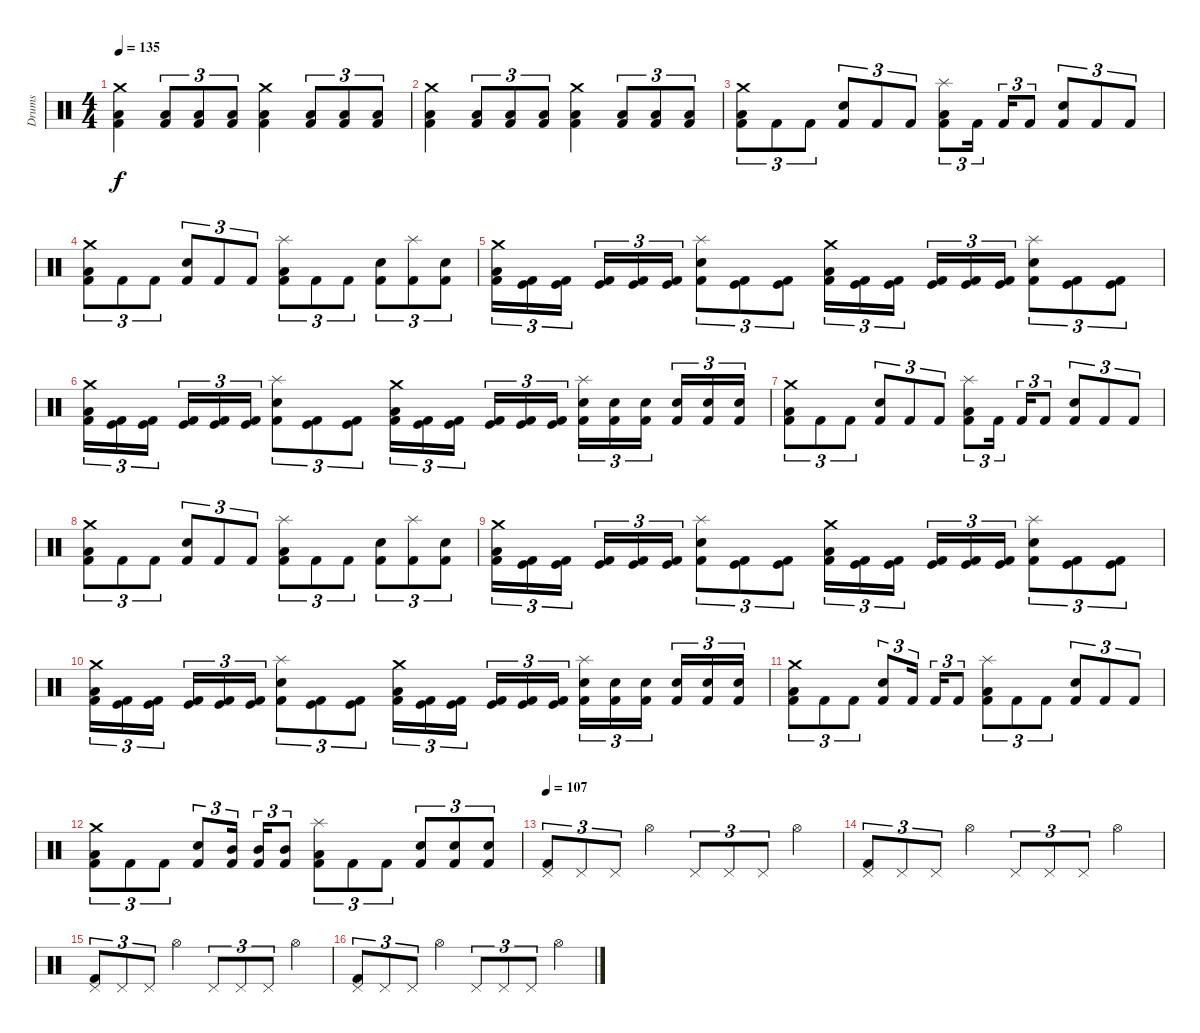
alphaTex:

\track ("Drums" "Drums") {instrument percussion}
\staff {score}
\articulation defaults
\ts (4 4)
\tempo 135
\clef neutral
\ks c
("Crash medium (hit)" "Low Floor Tom (hit)" "Kick (hit) 2").4{dy f} ("Low Floor Tom (hit)" "Kick (hit) 2").8{tu (3 2)} ("Low Floor Tom (hit)" "Kick (hit) 2").8{tu (3 2)} ("Low Floor Tom (hit)" "Kick (hit) 2").8{tu (3 2)} ("Crash medium (hit)" "Low Floor Tom (hit)" "Kick (hit) 2").4 ("Low Floor Tom (hit)" "Kick (hit) 2").8{tu (3 2)} ("Low Floor Tom (hit)" "Kick (hit) 2").8{tu (3 2)} ("Low Floor Tom (hit)" "Kick (hit) 2").8{tu (3 2)} |
("Crash medium (hit)" "Low Floor Tom (hit)" "Kick (hit) 2").4 ("Low Floor Tom (hit)" "Kick (hit) 2").8{tu (3 2)} ("Low Floor Tom (hit)" "Kick (hit) 2").8{tu (3 2)} ("Low Floor Tom (hit)" "Kick (hit) 2").8{tu (3 2)} ("Crash medium (hit)" "Low Floor Tom (hit)" "Kick (hit) 2").4 ("Low Floor Tom (hit)" "Kick (hit) 2").8{tu (3 2)} ("Low Floor Tom (hit)" "Kick (hit) 2").8{tu (3 2)} ("Low Floor Tom (hit)" "Kick (hit) 2").8{tu (3 2)} |
("Crash medium (hit)" "Low Floor Tom (hit)" "Kick (hit) 2").8{tu (3 2)} "Kick (hit) 2".8{tu (3 2)} "Kick (hit) 2".8{tu (3 2)} ("Snare (hit) 2" "Kick (hit) 2").8{tu (3 2)} "Kick (hit) 2".8{tu (3 2)} "Kick (hit) 2".8{tu (3 2)} ("Splash (hit)" "Low Floor Tom (hit)" "Kick (hit) 2").8{tu (3 2)} "Kick (hit) 2".16{tu (3 2)} "Kick (hit) 2".16{tu (3 2)} "Kick (hit) 2".8{tu (3 2)} ("Snare (hit) 2" "Kick (hit) 2").8{tu (3 2)} "Kick (hit) 2".8{tu (3 2)} "Kick (hit) 2".8{tu (3 2)} |
("Crash medium (hit)" "Low Floor Tom (hit)" "Kick (hit) 2").8{tu (3 2)} "Kick (hit) 2".8{tu (3 2)} "Kick (hit) 2".8{tu (3 2)} ("Snare (hit) 2" "Kick (hit) 2").8{tu (3 2)} "Kick (hit) 2".8{tu (3 2)} "Kick (hit) 2".8{tu (3 2)} ("Splash (hit)" "Low Floor Tom (hit)" "Kick (hit) 2").8{tu (3 2)} "Kick (hit) 2".8{tu (3 2)} "Kick (hit) 2".8{tu (3 2)} ("Snare (hit) 2" "Kick (hit) 2").8{tu (3 2)} ("Splash (hit)" "Kick (hit) 2").8{tu (3 2)} ("Snare (hit) 2" "Kick (hit) 2").8{tu (3 2)} |
("Crash medium (hit)" "Low Floor Tom (hit)" "Kick (hit) 2").16{tu (3 2)} ("Kick (hit)" "Kick (hit) 2").16{tu (3 2)} ("Kick (hit)" "Kick (hit) 2").16{tu (3 2)} ("Kick (hit)" "Kick (hit) 2").16{tu (3 2)} ("Kick (hit)" "Kick (hit) 2").16{tu (3 2)} ("Kick (hit)" "Kick (hit) 2").16{tu (3 2)} ("Splash (hit)" "Snare (hit) 2" "Kick (hit) 2").8{tu (3 2)} ("Kick (hit)" "Kick (hit) 2").8{tu (3 2)} ("Kick (hit)" "Kick (hit) 2").8{tu (3 2)} ("Crash medium (hit)" "Low Floor Tom (hit)" "Kick (hit) 2").16{tu (3 2)} ("Kick (hit)" "Kick (hit) 2").16{tu (3 2)} ("Kick (hit)" "Kick (hit) 2").16{tu (3 2)} ("Kick (hit)" "Kick (hit) 2").16{tu (3 2)} ("Kick (hit)" "Kick (hit) 2").16{tu (3 2)} ("Kick (hit)" "Kick (hit) 2").16{tu (3 2)} ("Splash (hit)" "Snare (hit) 2" "Kick (hit) 2").8{tu (3 2)} ("Kick (hit)" "Kick (hit) 2").8{tu (3 2)} ("Kick (hit)" "Kick (hit) 2").8{tu (3 2)} |
("Crash medium (hit)" "Low Floor Tom (hit)" "Kick (hit) 2").16{tu (3 2)} ("Kick (hit)" "Kick (hit) 2").16{tu (3 2)} ("Kick (hit)" "Kick (hit) 2").16{tu (3 2)} ("Kick (hit)" "Kick (hit) 2").16{tu (3 2)} ("Kick (hit)" "Kick (hit) 2").16{tu (3 2)} ("Kick (hit)" "Kick (hit) 2").16{tu (3 2)} ("Splash (hit)" "Snare (hit) 2" "Kick (hit) 2").8{tu (3 2)} ("Kick (hit)" "Kick (hit) 2").8{tu (3 2)} ("Kick (hit)" "Kick (hit) 2").8{tu (3 2)} ("Crash medium (hit)" "Low Floor Tom (hit)" "Kick (hit) 2").16{tu (3 2)} ("Kick (hit)" "Kick (hit) 2").16{tu (3 2)} ("Kick (hit)" "Kick (hit) 2").16{tu (3 2)} ("Kick (hit)" "Kick (hit) 2").16{tu (3 2)} ("Kick (hit)" "Kick (hit) 2").16{tu (3 2)} ("Kick (hit)" "Kick (hit) 2").16{tu (3 2)} ("Splash (hit)" "Snare (hit) 2" "Kick (hit) 2").16{tu (3 2)} ("Snare (hit) 2" "Kick (hit) 2").16{tu (3 2)} ("Snare (hit) 2" "Kick (hit) 2").16{tu (3 2)} ("Electric Snare (hit)" "Kick (hit) 2").16{tu (3 2)} ("Electric Snare (hit)" "Kick (hit) 2").16{tu (3 2)} ("Electric Snare (hit)" "Kick (hit) 2").16{tu (3 2)} |
("Crash medium (hit)" "Low Floor Tom (hit)" "Kick (hit) 2").8{tu (3 2)} "Kick (hit) 2".8{tu (3 2)} "Kick (hit) 2".8{tu (3 2)} ("Snare (hit) 2" "Kick (hit) 2").8{tu (3 2)} "Kick (hit) 2".8{tu (3 2)} "Kick (hit) 2".8{tu (3 2)} ("Splash (hit)" "Low Floor Tom (hit)" "Kick (hit) 2").8{tu (3 2)} "Kick (hit) 2".16{tu (3 2)} "Kick (hit) 2".16{tu (3 2)} "Kick (hit) 2".8{tu (3 2)} ("Snare (hit) 2" "Kick (hit) 2").8{tu (3 2)} "Kick (hit) 2".8{tu (3 2)} "Kick (hit) 2".8{tu (3 2)} |
("Crash medium (hit)" "Low Floor Tom (hit)" "Kick (hit) 2").8{tu (3 2)} "Kick (hit) 2".8{tu (3 2)} "Kick (hit) 2".8{tu (3 2)} ("Snare (hit) 2" "Kick (hit) 2").8{tu (3 2)} "Kick (hit) 2".8{tu (3 2)} "Kick (hit) 2".8{tu (3 2)} ("Splash (hit)" "Low Floor Tom (hit)" "Kick (hit) 2").8{tu (3 2)} "Kick (hit) 2".8{tu (3 2)} "Kick (hit) 2".8{tu (3 2)} ("Snare (hit) 2" "Kick (hit) 2").8{tu (3 2)} ("Splash (hit)" "Kick (hit) 2").8{tu (3 2)} ("Snare (hit) 2" "Kick (hit) 2").8{tu (3 2)} |
("Crash medium (hit)" "Low Floor Tom (hit)" "Kick (hit) 2").16{tu (3 2)} ("Kick (hit)" "Kick (hit) 2").16{tu (3 2)} ("Kick (hit)" "Kick (hit) 2").16{tu (3 2)} ("Kick (hit)" "Kick (hit) 2").16{tu (3 2)} ("Kick (hit)" "Kick (hit) 2").16{tu (3 2)} ("Kick (hit)" "Kick (hit) 2").16{tu (3 2)} ("Splash (hit)" "Snare (hit) 2" "Kick (hit) 2").8{tu (3 2)} ("Kick (hit)" "Kick (hit) 2").8{tu (3 2)} ("Kick (hit)" "Kick (hit) 2").8{tu (3 2)} ("Crash medium (hit)" "Low Floor Tom (hit)" "Kick (hit) 2").16{tu (3 2)} ("Kick (hit)" "Kick (hit) 2").16{tu (3 2)} ("Kick (hit)" "Kick (hit) 2").16{tu (3 2)} ("Kick (hit)" "Kick (hit) 2").16{tu (3 2)} ("Kick (hit)" "Kick (hit) 2").16{tu (3 2)} ("Kick (hit)" "Kick (hit) 2").16{tu (3 2)} ("Splash (hit)" "Snare (hit) 2" "Kick (hit) 2").8{tu (3 2)} ("Kick (hit)" "Kick (hit) 2").8{tu (3 2)} ("Kick (hit)" "Kick (hit) 2").8{tu (3 2)} |
("Crash medium (hit)" "Low Floor Tom (hit)" "Kick (hit) 2").16{tu (3 2)} ("Kick (hit)" "Kick (hit) 2").16{tu (3 2)} ("Kick (hit)" "Kick (hit) 2").16{tu (3 2)} ("Kick (hit)" "Kick (hit) 2").16{tu (3 2)} ("Kick (hit)" "Kick (hit) 2").16{tu (3 2)} ("Kick (hit)" "Kick (hit) 2").16{tu (3 2)} ("Splash (hit)" "Snare (hit) 2" "Kick (hit) 2").8{tu (3 2)} ("Kick (hit)" "Kick (hit) 2").8{tu (3 2)} ("Kick (hit)" "Kick (hit) 2").8{tu (3 2)} ("Crash medium (hit)" "Low Floor Tom (hit)" "Kick (hit) 2").16{tu (3 2)} ("Kick (hit)" "Kick (hit) 2").16{tu (3 2)} ("Kick (hit)" "Kick (hit) 2").16{tu (3 2)} ("Kick (hit)" "Kick (hit) 2").16{tu (3 2)} ("Kick (hit)" "Kick (hit) 2").16{tu (3 2)} ("Kick (hit)" "Kick (hit) 2").16{tu (3 2)} ("Splash (hit)" "Snare (hit) 2" "Kick (hit) 2").16{tu (3 2)} ("Snare (hit) 2" "Kick (hit) 2").16{tu (3 2)} ("Snare (hit) 2" "Kick (hit) 2").16{tu (3 2)} ("Electric Snare (hit)" "Kick (hit) 2").16{tu (3 2)} ("Electric Snare (hit)" "Kick (hit) 2").16{tu (3 2)} ("Electric Snare (hit)" "Kick (hit) 2").16{tu (3 2)} |
("Crash medium (hit)" "Low Floor Tom (hit)" "Kick (hit) 2").8{tu (3 2)} "Kick (hit) 2".8{tu (3 2)} "Kick (hit) 2".8{tu (3 2)} ("Snare (hit) 2" "Kick (hit) 2").8{tu (3 2)} "Kick (hit) 2".16{tu (3 2)} "Kick (hit) 2".16{tu (3 2)} "Kick (hit) 2".8{tu (3 2)} ("Splash (hit)" "Low Floor Tom (hit)" "Kick (hit) 2").8{tu (3 2)} "Kick (hit) 2".8{tu (3 2)} "Kick (hit) 2".8{tu (3 2)} ("Snare (hit) 2" "Kick (hit) 2").8{tu (3 2)} "Kick (hit) 2".8{tu (3 2)} "Kick (hit) 2".8{tu (3 2)} |
("Crash medium (hit)" "Low Floor Tom (hit)" "Kick (hit) 2").8{tu (3 2)} "Kick (hit) 2".8{tu (3 2)} "Kick (hit) 2".8{tu (3 2)} ("Snare (hit) 2" "Kick (hit) 2").8{tu (3 2)} ("Mid Tom (hit)" "Kick (hit) 2").16{tu (3 2)} ("Mid Tom (hit)" "Kick (hit) 2").16{tu (3 2)} ("Mid Tom (hit)" "Kick (hit) 2").8{tu (3 2)} ("Splash (hit)" "Low Floor Tom (hit)" "Kick (hit) 2").8{tu (3 2)} "Kick (hit) 2".8{tu (3 2)} "Kick (hit) 2".8{tu (3 2)} ("Snare (hit) 2" "Kick (hit) 2").8{tu (3 2)} ("Snare (hit) 2" "Kick (hit) 2").8{tu (3 2)} ("Snare (hit) 2" "Kick (hit) 2").8{tu (3 2)} |
\tempo 107
("Pedal Hi-Hat (hit)" "Kick (hit) 2").8{tu (3 2) volume 12} "Pedal Hi-Hat (hit)".8{tu (3 2)} "Pedal Hi-Hat (hit)".8{tu (3 2)} "Hi-Hat (open)".4 "Pedal Hi-Hat (hit)".8{tu (3 2)} "Pedal Hi-Hat (hit)".8{tu (3 2)} "Pedal Hi-Hat (hit)".8{tu (3 2)} "Hi-Hat (open)".4 |
("Pedal Hi-Hat (hit)" "Kick (hit) 2").8{tu (3 2)} "Pedal Hi-Hat (hit)".8{tu (3 2)} "Pedal Hi-Hat (hit)".8{tu (3 2)} "Hi-Hat (open)".4 "Pedal Hi-Hat (hit)".8{tu (3 2)} "Pedal Hi-Hat (hit)".8{tu (3 2)} "Pedal Hi-Hat (hit)".8{tu (3 2)} "Hi-Hat (open)".4 |
("Pedal Hi-Hat (hit)" "Kick (hit) 2").8{tu (3 2) volume 12} "Pedal Hi-Hat (hit)".8{tu (3 2)} "Pedal Hi-Hat (hit)".8{tu (3 2)} "Hi-Hat (open)".4 "Pedal Hi-Hat (hit)".8{tu (3 2)} "Pedal Hi-Hat (hit)".8{tu (3 2)} "Pedal Hi-Hat (hit)".8{tu (3 2)} "Hi-Hat (open)".4 |
("Pedal Hi-Hat (hit)" "Kick (hit) 2").8{tu (3 2)} "Pedal Hi-Hat (hit)".8{tu (3 2)} "Pedal Hi-Hat (hit)".8{tu (3 2)} "Hi-Hat (open)".4 "Pedal Hi-Hat (hit)".8{tu (3 2)} "Pedal Hi-Hat (hit)".8{tu (3 2)} "Pedal Hi-Hat (hit)".8{tu (3 2)} "Hi-Hat (open)".4
